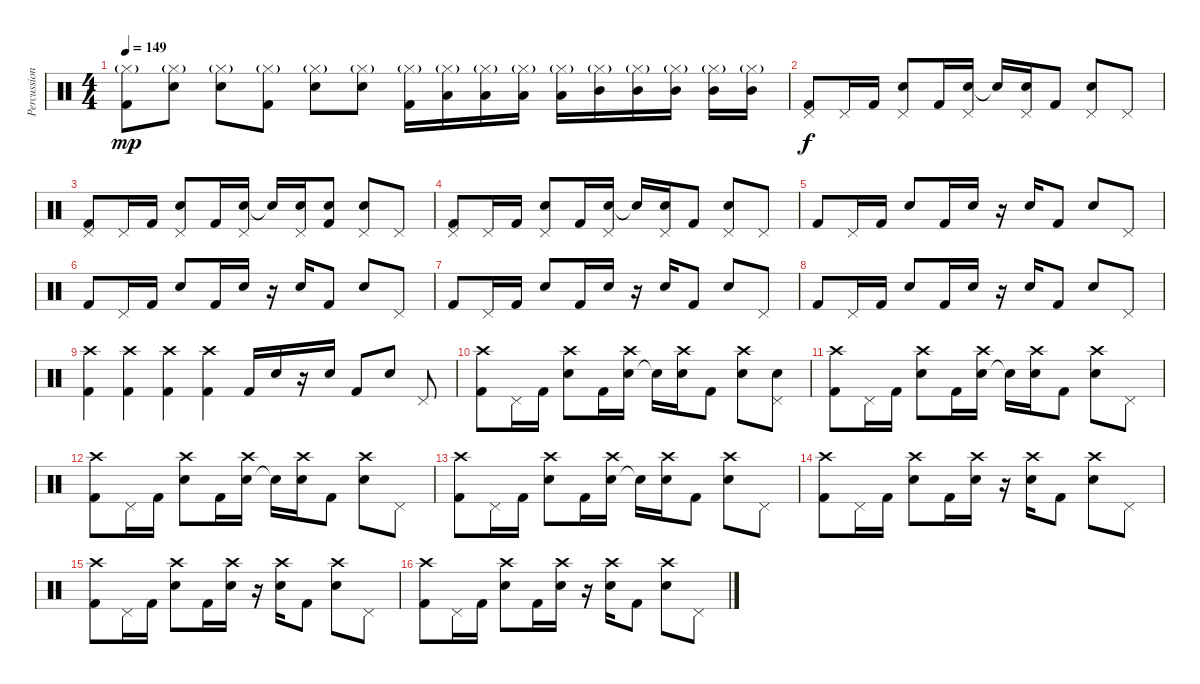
\track ("Percussion" "Percussion") {instrument percussion}
\staff {score}
\articulation defaults
\ts (4 4)
\tempo 149
\clef neutral
\ks c
("Hi-Hat (closed)"{g} "Kick (hit) 2").8{dy mp} ("Hi-Hat (closed)"{g} "Electric Snare (hit)").8 ("Hi-Hat (closed)"{g} "Electric Snare (hit)").8 ("Hi-Hat (closed)"{g} "Kick (hit) 2").8 ("Hi-Hat (closed)"{g} "Electric Snare (hit)").8 ("Hi-Hat (closed)"{g} "Electric Snare (hit)").8 ("Hi-Hat (closed)"{g} "Kick (hit) 2").16 ("Hi-Hat (closed)"{g} "Low Floor Tom (hit)").16 ("Hi-Hat (closed)"{g} "Low Floor Tom (hit)").16 ("Hi-Hat (closed)"{g} "Low Floor Tom (hit)").16 ("Hi-Hat (closed)"{g} "Low Floor Tom (hit)").16 ("Hi-Hat (closed)"{g} "Mid Tom (hit)").16 ("Hi-Hat (closed)"{g} "Mid Tom (hit)").16 ("Hi-Hat (closed)"{g} "Mid Tom (hit)").16 ("Hi-Hat (closed)"{g} "Mid Tom (hit)").16 ("Hi-Hat (closed)"{g} "Mid Tom (hit)").16 |
("Kick (hit) 2" "Pedal Hi-Hat (hit)").8{dy f} "Pedal Hi-Hat (hit)".16 "Kick (hit) 2".16 ("Electric Snare (hit)" "Pedal Hi-Hat (hit)").8 "Kick (hit) 2".16 ("Electric Snare (hit)" "Pedal Hi-Hat (hit)").16 "Snare (hit)"{t}.16 ("Electric Snare (hit)" "Pedal Hi-Hat (hit)").16 "Kick (hit) 2".8 ("Electric Snare (hit)" "Pedal Hi-Hat (hit)").8 "Pedal Hi-Hat (hit)".8 |
("Kick (hit) 2" "Pedal Hi-Hat (hit)").8 "Pedal Hi-Hat (hit)".16 "Kick (hit) 2".16 ("Electric Snare (hit)" "Pedal Hi-Hat (hit)").8 "Kick (hit) 2".16 ("Electric Snare (hit)" "Pedal Hi-Hat (hit)").16 "Snare (hit)"{t}.16 ("Electric Snare (hit)" "Pedal Hi-Hat (hit)").16 ("Kick (hit) 2" "Snare (hit)").8 ("Electric Snare (hit)" "Pedal Hi-Hat (hit)").8 "Pedal Hi-Hat (hit)".8 |
("Kick (hit) 2" "Pedal Hi-Hat (hit)").8 "Pedal Hi-Hat (hit)".16 "Kick (hit) 2".16 ("Electric Snare (hit)" "Pedal Hi-Hat (hit)").8 "Kick (hit) 2".16 ("Electric Snare (hit)" "Pedal Hi-Hat (hit)").16 "Snare (hit)"{t}.16 ("Electric Snare (hit)" "Pedal Hi-Hat (hit)").16 "Kick (hit) 2".8 ("Electric Snare (hit)" "Pedal Hi-Hat (hit)").8 "Pedal Hi-Hat (hit)".8 |
"Kick (hit) 2".8 "Pedal Hi-Hat (hit)".16 "Kick (hit) 2".16 "Electric Snare (hit)".8 "Kick (hit) 2".16 "Electric Snare (hit)".16 r.16 "Electric Snare (hit)".16 "Kick (hit) 2".8 "Electric Snare (hit)".8 "Pedal Hi-Hat (hit)".8 |
"Kick (hit) 2".8 "Pedal Hi-Hat (hit)".16 "Kick (hit) 2".16 "Electric Snare (hit)".8 "Kick (hit) 2".16 "Electric Snare (hit)".16 r.16 "Electric Snare (hit)".16 "Kick (hit) 2".8 "Electric Snare (hit)".8 "Pedal Hi-Hat (hit)".8 |
"Kick (hit) 2".8 "Pedal Hi-Hat (hit)".16 "Kick (hit) 2".16 "Electric Snare (hit)".8 "Kick (hit) 2".16 "Electric Snare (hit)".16 r.16 "Electric Snare (hit)".16 "Kick (hit) 2".8 "Electric Snare (hit)".8 "Pedal Hi-Hat (hit)".8 |
"Kick (hit) 2".8 "Pedal Hi-Hat (hit)".16 "Kick (hit) 2".16 "Electric Snare (hit)".8 "Kick (hit) 2".16 "Electric Snare (hit)".16 r.16 "Electric Snare (hit)".16 "Kick (hit) 2".8 "Electric Snare (hit)".8 "Pedal Hi-Hat (hit)".8 |
("Kick (hit) 2" "Crash high (hit)").4 ("Kick (hit) 2" "Crash high (hit)").4 ("Kick (hit) 2" "Crash high (hit)").4 ("Kick (hit) 2" "Crash high (hit)").4 "Kick (hit) 2".16 "Electric Snare (hit)".16 r.16 "Electric Snare (hit)".16 "Kick (hit) 2".8 "Electric Snare (hit)".8 "Pedal Hi-Hat (hit)".8 |
("Kick (hit) 2" "Crash high (hit)").8 "Pedal Hi-Hat (hit)".16 "Kick (hit) 2".16 ("Electric Snare (hit)" "Crash high (hit)").8 "Kick (hit) 2".16 ("Electric Snare (hit)" "Crash high (hit)").16 "Snare (hit)"{t}.16 ("Electric Snare (hit)" "Crash high (hit)").16 "Kick (hit) 2".8 ("Electric Snare (hit)" "Crash high (hit)").8 ("Snare (hit)" "Pedal Hi-Hat (hit)").8 |
("Kick (hit) 2" "Crash high (hit)").8 "Pedal Hi-Hat (hit)".16 "Kick (hit) 2".16 ("Electric Snare (hit)" "Crash high (hit)").8 "Kick (hit) 2".16 ("Electric Snare (hit)" "Crash high (hit)").16 "Snare (hit)"{t}.16 ("Electric Snare (hit)" "Crash high (hit)").16 "Kick (hit) 2".8 ("Electric Snare (hit)" "Crash high (hit)").8 "Pedal Hi-Hat (hit)".8 |
("Kick (hit) 2" "Crash high (hit)").8 "Pedal Hi-Hat (hit)".16 "Kick (hit) 2".16 ("Electric Snare (hit)" "Crash high (hit)").8 "Kick (hit) 2".16 ("Electric Snare (hit)" "Crash high (hit)").16 "Snare (hit)"{t}.16 ("Electric Snare (hit)" "Crash high (hit)").16 "Kick (hit) 2".8 ("Electric Snare (hit)" "Crash high (hit)").8 "Pedal Hi-Hat (hit)".8 |
("Kick (hit) 2" "Crash high (hit)").8 "Pedal Hi-Hat (hit)".16 "Kick (hit) 2".16 ("Electric Snare (hit)" "Crash high (hit)").8 "Kick (hit) 2".16 ("Electric Snare (hit)" "Crash high (hit)").16 "Snare (hit)"{t}.16 ("Electric Snare (hit)" "Crash high (hit)").16 "Kick (hit) 2".8 ("Electric Snare (hit)" "Crash high (hit)").8 "Pedal Hi-Hat (hit)".8 |
("Kick (hit) 2" "Crash high (hit)").8 "Pedal Hi-Hat (hit)".16 "Kick (hit) 2".16 ("Electric Snare (hit)" "Crash high (hit)").8 "Kick (hit) 2".16 ("Electric Snare (hit)" "Crash high (hit)").16 r.16 ("Electric Snare (hit)" "Crash high (hit)").16 "Kick (hit) 2".8 ("Electric Snare (hit)" "Crash high (hit)").8 "Pedal Hi-Hat (hit)".8 |
("Kick (hit) 2" "Crash high (hit)").8 "Pedal Hi-Hat (hit)".16 "Kick (hit) 2".16 ("Electric Snare (hit)" "Crash high (hit)").8 "Kick (hit) 2".16 ("Electric Snare (hit)" "Crash high (hit)").16 r.16 ("Electric Snare (hit)" "Crash high (hit)").16 "Kick (hit) 2".8 ("Electric Snare (hit)" "Crash high (hit)").8 "Pedal Hi-Hat (hit)".8 |
("Kick (hit) 2" "Crash high (hit)").8 "Pedal Hi-Hat (hit)".16 "Kick (hit) 2".16 ("Electric Snare (hit)" "Crash high (hit)").8 "Kick (hit) 2".16 ("Electric Snare (hit)" "Crash high (hit)").16 r.16 ("Electric Snare (hit)" "Crash high (hit)").16 "Kick (hit) 2".8 ("Electric Snare (hit)" "Crash high (hit)").8 "Pedal Hi-Hat (hit)".8
